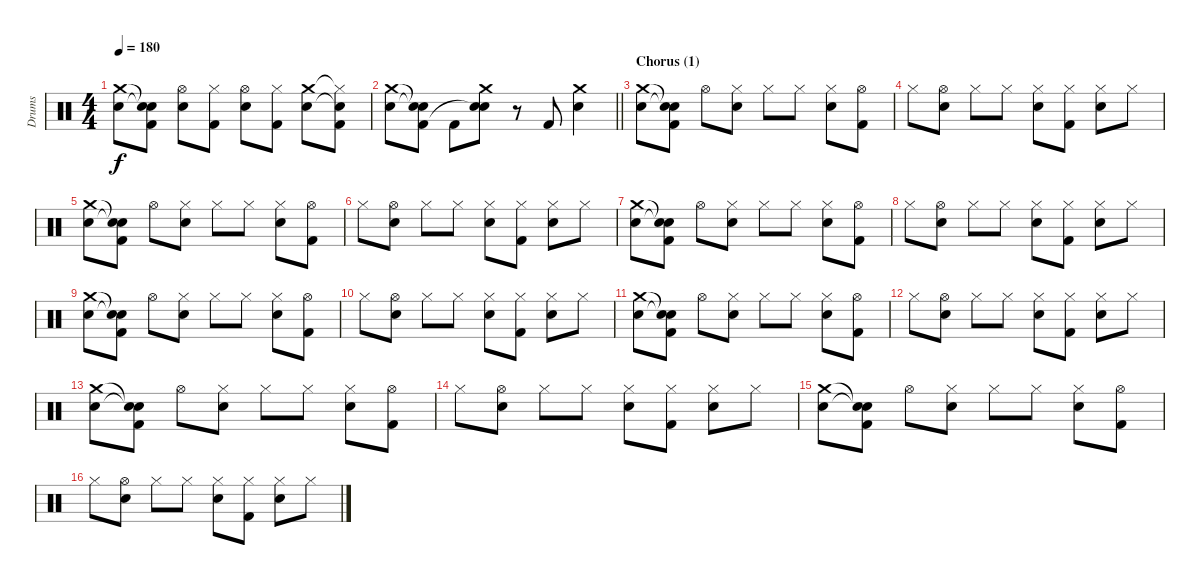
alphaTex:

\track ("Drums" "Drums") {instrument percussion}
\staff {score}
\articulation defaults
\ts (4 4)
\tempo 180
\clef neutral
\ks c
("Crash medium (hit)" "Electric Snare (hit)").8{dy f} ("Snare (hit)"{t} "Snare (hit)"{t} "Kick (hit) 2").8 ("Hi-Hat (open)" "Electric Snare (hit)").8 ("Hi-Hat (closed)" "Kick (hit) 2").8 ("Hi-Hat (open)" "Electric Snare (hit)").8 ("Hi-Hat (closed)" "Kick (hit) 2").8 ("Crash medium (hit)" "Electric Snare (hit)").8 ("Hi-Hat (closed)"{t} "Snare (hit)"{t} "Kick (hit) 2").8 |
\barLineRight lightlight
("Crash medium (hit)" "Electric Snare (hit)").8 ("Snare (hit)"{t} "Snare (hit)"{t} "Kick (hit) 2").8 "Kick (hit) 2".8 ("Crash medium (hit)" "Electric Snare (hit)" "Snare (hit)"{t}).8 r.8 "Kick (hit) 2".8 ("Crash medium (hit)" "Electric Snare (hit)").4 |
\section ("" "Chorus (1)")
("Crash medium (hit)" "Electric Snare (hit)").8 ("Snare (hit)"{t} "Snare (hit)"{t} "Kick (hit) 2").8 "Hi-Hat (open)".8 ("Hi-Hat (closed)" "Electric Snare (hit)").8 "Hi-Hat (closed)".8 "Hi-Hat (closed)".8 ("Hi-Hat (closed)" "Electric Snare (hit)").8 ("Hi-Hat (open)" "Kick (hit) 2").8 |
"Hi-Hat (closed)".8 ("Hi-Hat (open)" "Electric Snare (hit)").8 "Hi-Hat (closed)".8 "Hi-Hat (closed)".8 ("Hi-Hat (closed)" "Electric Snare (hit)").8 ("Hi-Hat (closed)" "Kick (hit) 2").8 ("Hi-Hat (closed)" "Electric Snare (hit)").8 "Hi-Hat (closed)".8 |
("Crash medium (hit)" "Electric Snare (hit)").8 ("Snare (hit)"{t} "Snare (hit)"{t} "Kick (hit) 2").8 "Hi-Hat (open)".8 ("Hi-Hat (closed)" "Electric Snare (hit)").8 "Hi-Hat (closed)".8 "Hi-Hat (closed)".8 ("Hi-Hat (closed)" "Electric Snare (hit)").8 ("Hi-Hat (open)" "Kick (hit) 2").8 |
"Hi-Hat (closed)".8 ("Hi-Hat (open)" "Electric Snare (hit)").8 "Hi-Hat (closed)".8 "Hi-Hat (closed)".8 ("Hi-Hat (closed)" "Electric Snare (hit)").8 ("Hi-Hat (closed)" "Kick (hit) 2").8 ("Hi-Hat (closed)" "Electric Snare (hit)").8 "Hi-Hat (closed)".8 |
("Crash medium (hit)" "Electric Snare (hit)").8 ("Snare (hit)"{t} "Snare (hit)"{t} "Kick (hit) 2").8 "Hi-Hat (open)".8 ("Hi-Hat (closed)" "Electric Snare (hit)").8 "Hi-Hat (closed)".8 "Hi-Hat (closed)".8 ("Hi-Hat (closed)" "Electric Snare (hit)").8 ("Hi-Hat (open)" "Kick (hit) 2").8 |
"Hi-Hat (closed)".8 ("Hi-Hat (open)" "Electric Snare (hit)").8 "Hi-Hat (closed)".8 "Hi-Hat (closed)".8 ("Hi-Hat (closed)" "Electric Snare (hit)").8 ("Hi-Hat (closed)" "Kick (hit) 2").8 ("Hi-Hat (closed)" "Electric Snare (hit)").8 "Hi-Hat (closed)".8 |
("Crash medium (hit)" "Electric Snare (hit)").8 ("Snare (hit)"{t} "Snare (hit)"{t} "Kick (hit) 2").8 "Hi-Hat (open)".8 ("Hi-Hat (closed)" "Electric Snare (hit)").8 "Hi-Hat (closed)".8 "Hi-Hat (closed)".8 ("Hi-Hat (closed)" "Electric Snare (hit)").8 ("Hi-Hat (open)" "Kick (hit) 2").8 |
"Hi-Hat (closed)".8 ("Hi-Hat (open)" "Electric Snare (hit)").8 "Hi-Hat (closed)".8 "Hi-Hat (closed)".8 ("Hi-Hat (closed)" "Electric Snare (hit)").8 ("Hi-Hat (closed)" "Kick (hit) 2").8 ("Hi-Hat (closed)" "Electric Snare (hit)").8 "Hi-Hat (closed)".8 |
("Crash medium (hit)" "Electric Snare (hit)").8 ("Snare (hit)"{t} "Snare (hit)"{t} "Kick (hit) 2").8 "Hi-Hat (open)".8 ("Hi-Hat (closed)" "Electric Snare (hit)").8 "Hi-Hat (closed)".8 "Hi-Hat (closed)".8 ("Hi-Hat (closed)" "Electric Snare (hit)").8 ("Hi-Hat (open)" "Kick (hit) 2").8 |
"Hi-Hat (closed)".8 ("Hi-Hat (open)" "Electric Snare (hit)").8 "Hi-Hat (closed)".8 "Hi-Hat (closed)".8 ("Hi-Hat (closed)" "Electric Snare (hit)").8 ("Hi-Hat (closed)" "Kick (hit) 2").8 ("Hi-Hat (closed)" "Electric Snare (hit)").8 "Hi-Hat (closed)".8 |
("Crash medium (hit)" "Electric Snare (hit)").8 ("Snare (hit)"{t} "Snare (hit)"{t} "Kick (hit) 2").8 "Hi-Hat (open)".8 ("Hi-Hat (closed)" "Electric Snare (hit)").8 "Hi-Hat (closed)".8 "Hi-Hat (closed)".8 ("Hi-Hat (closed)" "Electric Snare (hit)").8 ("Hi-Hat (open)" "Kick (hit) 2").8 |
"Hi-Hat (closed)".8 ("Hi-Hat (open)" "Electric Snare (hit)").8 "Hi-Hat (closed)".8 "Hi-Hat (closed)".8 ("Hi-Hat (closed)" "Electric Snare (hit)").8 ("Hi-Hat (closed)" "Kick (hit) 2").8 ("Hi-Hat (closed)" "Electric Snare (hit)").8 "Hi-Hat (closed)".8 |
("Crash medium (hit)" "Electric Snare (hit)").8 ("Snare (hit)"{t} "Snare (hit)"{t} "Kick (hit) 2").8 "Hi-Hat (open)".8 ("Hi-Hat (closed)" "Electric Snare (hit)").8 "Hi-Hat (closed)".8 "Hi-Hat (closed)".8 ("Hi-Hat (closed)" "Electric Snare (hit)").8 ("Hi-Hat (open)" "Kick (hit) 2").8 |
"Hi-Hat (closed)".8 ("Hi-Hat (open)" "Electric Snare (hit)").8 "Hi-Hat (closed)".8 "Hi-Hat (closed)".8 ("Hi-Hat (closed)" "Electric Snare (hit)").8 ("Hi-Hat (closed)" "Kick (hit) 2").8 ("Hi-Hat (closed)" "Electric Snare (hit)").8 "Hi-Hat (closed)".8
